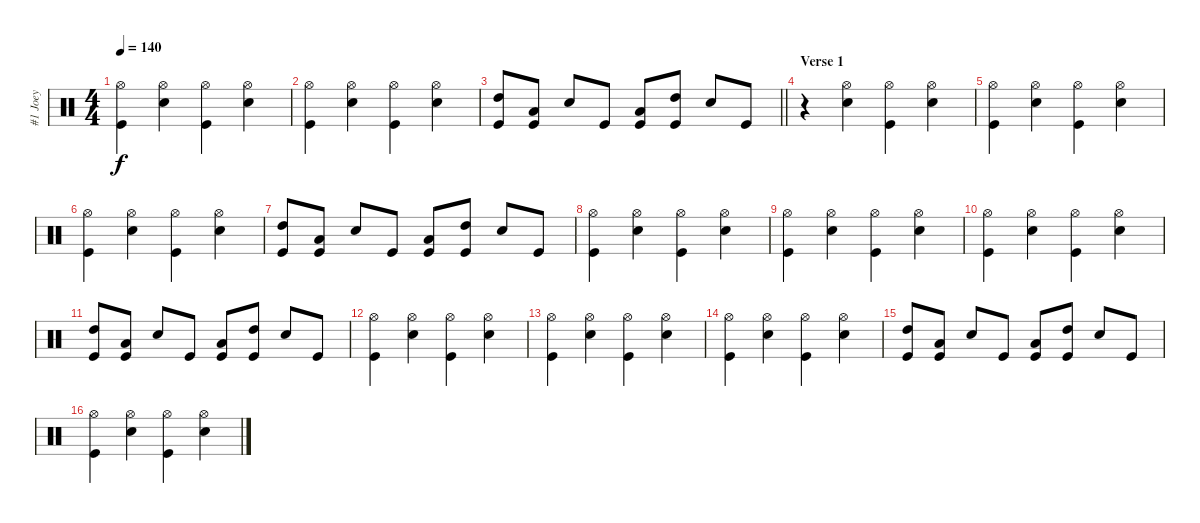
\track ("#1 Joey" "#1 Joey") {solo instrument percussion}
\staff {score}
\articulation defaults
\ts (4 4)
\tempo 140
\clef neutral
\ks c
("Hi-Hat (open)" "Kick (hit)").4{dy f} ("Hi-Hat (open)" "Electric Snare (hit)").4 ("Hi-Hat (open)" "Kick (hit)").4 ("Hi-Hat (open)" "Electric Snare (hit)").4 |
("Hi-Hat (open)" "Kick (hit)").4 ("Hi-Hat (open)" "Electric Snare (hit)").4 ("Hi-Hat (open)" "Kick (hit)").4 ("Hi-Hat (open)" "Electric Snare (hit)").4 |
\barLineRight lightlight
("High Tom (hit)" "Kick (hit)").8 ("Low Tom (hit)" "Kick (hit)").8 "Electric Snare (hit)".8 "Kick (hit)".8 ("Low Tom (hit)" "Kick (hit)").8 ("High Tom (hit)" "Kick (hit)").8 "Electric Snare (hit)".8 "Kick (hit)".8 |
\section ("" "Verse 1")
r.4 ("Hi-Hat (open)" "Electric Snare (hit)").4 ("Hi-Hat (open)" "Kick (hit)").4 ("Hi-Hat (open)" "Electric Snare (hit)").4 |
("Hi-Hat (open)" "Kick (hit)").4 ("Hi-Hat (open)" "Electric Snare (hit)").4 ("Hi-Hat (open)" "Kick (hit)").4 ("Hi-Hat (open)" "Electric Snare (hit)").4 |
("Hi-Hat (open)" "Kick (hit)").4 ("Hi-Hat (open)" "Electric Snare (hit)").4 ("Hi-Hat (open)" "Kick (hit)").4 ("Hi-Hat (open)" "Electric Snare (hit)").4 |
("High Tom (hit)" "Kick (hit)").8 ("Low Tom (hit)" "Kick (hit)").8 "Electric Snare (hit)".8 "Kick (hit)".8 ("Low Tom (hit)" "Kick (hit)").8 ("High Tom (hit)" "Kick (hit)").8 "Electric Snare (hit)".8 "Kick (hit)".8 |
("Hi-Hat (open)" "Kick (hit)").4 ("Hi-Hat (open)" "Electric Snare (hit)").4 ("Hi-Hat (open)" "Kick (hit)").4 ("Hi-Hat (open)" "Electric Snare (hit)").4 |
("Hi-Hat (open)" "Kick (hit)").4 ("Hi-Hat (open)" "Electric Snare (hit)").4 ("Hi-Hat (open)" "Kick (hit)").4 ("Hi-Hat (open)" "Electric Snare (hit)").4 |
("Hi-Hat (open)" "Kick (hit)").4 ("Hi-Hat (open)" "Electric Snare (hit)").4 ("Hi-Hat (open)" "Kick (hit)").4 ("Hi-Hat (open)" "Electric Snare (hit)").4 |
("High Tom (hit)" "Kick (hit)").8 ("Low Tom (hit)" "Kick (hit)").8 "Electric Snare (hit)".8 "Kick (hit)".8 ("Low Tom (hit)" "Kick (hit)").8 ("High Tom (hit)" "Kick (hit)").8 "Electric Snare (hit)".8 "Kick (hit)".8 |
("Hi-Hat (open)" "Kick (hit)").4 ("Hi-Hat (open)" "Electric Snare (hit)").4 ("Hi-Hat (open)" "Kick (hit)").4 ("Hi-Hat (open)" "Electric Snare (hit)").4 |
("Hi-Hat (open)" "Kick (hit)").4 ("Hi-Hat (open)" "Electric Snare (hit)").4 ("Hi-Hat (open)" "Kick (hit)").4 ("Hi-Hat (open)" "Electric Snare (hit)").4 |
("Hi-Hat (open)" "Kick (hit)").4 ("Hi-Hat (open)" "Electric Snare (hit)").4 ("Hi-Hat (open)" "Kick (hit)").4 ("Hi-Hat (open)" "Electric Snare (hit)").4 |
("High Tom (hit)" "Kick (hit)").8 ("Low Tom (hit)" "Kick (hit)").8 "Electric Snare (hit)".8 "Kick (hit)".8 ("Low Tom (hit)" "Kick (hit)").8 ("High Tom (hit)" "Kick (hit)").8 "Electric Snare (hit)".8 "Kick (hit)".8 |
("Hi-Hat (open)" "Kick (hit)").4 ("Hi-Hat (open)" "Electric Snare (hit)").4 ("Hi-Hat (open)" "Kick (hit)").4 ("Hi-Hat (open)" "Electric Snare (hit)").4
